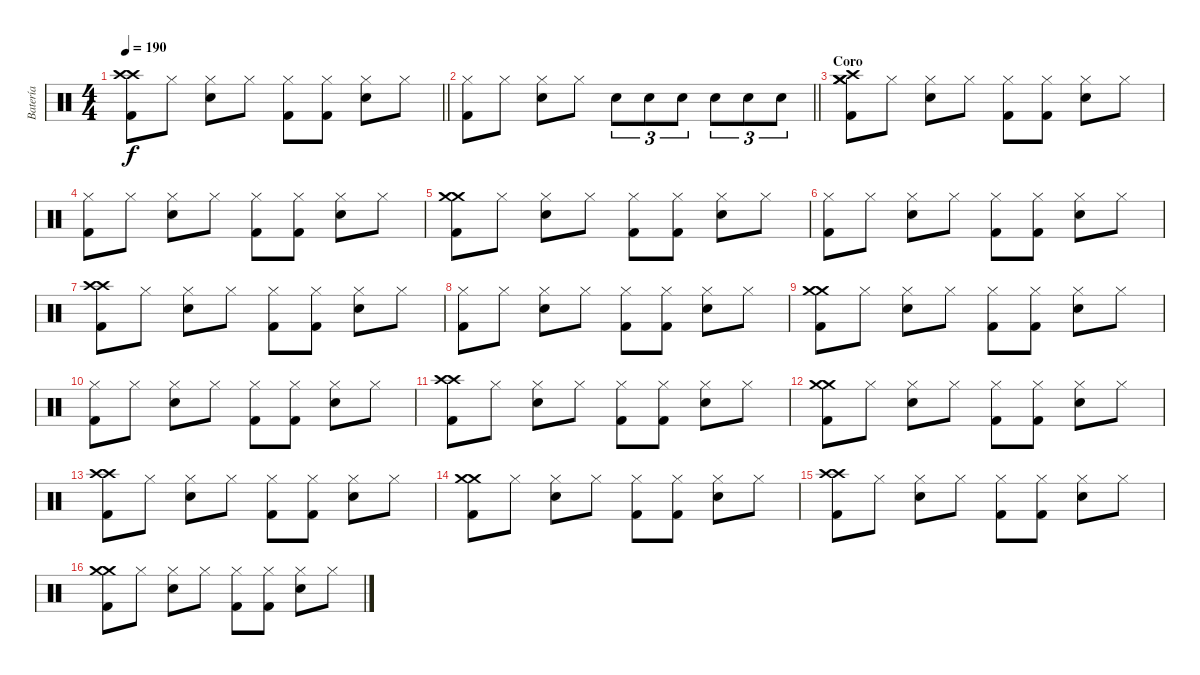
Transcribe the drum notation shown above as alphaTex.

\track ("Batería" "Batería") {instrument percussion}
\staff {score}
\articulation defaults
\ts (4 4)
\tempo 190
\clef neutral
\barLineRight lightlight
\ks c
("Crash high (hit)" "Crash high (hit)" "Kick (hit) 2").8{dy f} "Hi-Hat (closed)".8 ("Hi-Hat (closed)" "Snare (hit) 2").8 "Hi-Hat (closed)".8 ("Hi-Hat (closed)" "Kick (hit) 2").8 ("Hi-Hat (closed)" "Kick (hit) 2").8 ("Hi-Hat (closed)" "Snare (hit) 2").8 "Hi-Hat (closed)".8 |
\barLineRight lightlight
("Hi-Hat (closed)" "Kick (hit) 2").8 "Hi-Hat (closed)".8 ("Hi-Hat (closed)" "Snare (hit) 2").8 "Hi-Hat (closed)".8 "Snare (hit) 2".8{tu (3 2)} "Snare (hit) 2".8{tu (3 2)} "Snare (hit) 2".8{tu (3 2)} "Snare (hit) 2".8{tu (3 2)} "Snare (hit) 2".8{tu (3 2)} "Snare (hit) 2".8{tu (3 2)} |
\section ("" "Coro")
("Crash medium (hit)" "Crash high (hit)" "Crash medium (hit)" "Kick (hit) 2").8 "Hi-Hat (closed)".8 ("Hi-Hat (closed)" "Snare (hit) 2").8 "Hi-Hat (closed)".8 ("Hi-Hat (closed)" "Kick (hit) 2").8 ("Hi-Hat (closed)" "Kick (hit) 2").8 ("Hi-Hat (closed)" "Snare (hit) 2").8 "Hi-Hat (closed)".8 |
("Hi-Hat (closed)" "Kick (hit) 2").8 "Hi-Hat (closed)".8 ("Hi-Hat (closed)" "Snare (hit) 2").8 "Hi-Hat (closed)".8 ("Hi-Hat (closed)" "Kick (hit) 2").8 ("Hi-Hat (closed)" "Kick (hit) 2").8 ("Hi-Hat (closed)" "Snare (hit) 2").8 "Hi-Hat (closed)".8 |
("Crash medium (hit)" "Crash medium (hit)" "Kick (hit) 2").8 "Hi-Hat (closed)".8 ("Hi-Hat (closed)" "Snare (hit) 2").8 "Hi-Hat (closed)".8 ("Hi-Hat (closed)" "Kick (hit) 2").8 ("Hi-Hat (closed)" "Kick (hit) 2").8 ("Hi-Hat (closed)" "Snare (hit) 2").8 "Hi-Hat (closed)".8 |
("Hi-Hat (closed)" "Kick (hit) 2").8 "Hi-Hat (closed)".8 ("Hi-Hat (closed)" "Snare (hit) 2").8 "Hi-Hat (closed)".8 ("Hi-Hat (closed)" "Kick (hit) 2").8 ("Hi-Hat (closed)" "Kick (hit) 2").8 ("Hi-Hat (closed)" "Snare (hit) 2").8 "Hi-Hat (closed)".8 |
("Crash high (hit)" "Crash high (hit)" "Kick (hit) 2").8 "Hi-Hat (closed)".8 ("Hi-Hat (closed)" "Snare (hit) 2").8 "Hi-Hat (closed)".8 ("Hi-Hat (closed)" "Kick (hit) 2").8 ("Hi-Hat (closed)" "Kick (hit) 2").8 ("Hi-Hat (closed)" "Snare (hit) 2").8 "Hi-Hat (closed)".8 |
("Hi-Hat (closed)" "Kick (hit) 2").8 "Hi-Hat (closed)".8 ("Hi-Hat (closed)" "Snare (hit) 2").8 "Hi-Hat (closed)".8 ("Hi-Hat (closed)" "Kick (hit) 2").8 ("Hi-Hat (closed)" "Kick (hit) 2").8 ("Hi-Hat (closed)" "Snare (hit) 2").8 "Hi-Hat (closed)".8 |
("Crash medium (hit)" "Crash medium (hit)" "Kick (hit) 2").8 "Hi-Hat (closed)".8 ("Hi-Hat (closed)" "Snare (hit) 2").8 "Hi-Hat (closed)".8 ("Hi-Hat (closed)" "Kick (hit) 2").8 ("Hi-Hat (closed)" "Kick (hit) 2").8 ("Hi-Hat (closed)" "Snare (hit) 2").8 "Hi-Hat (closed)".8 |
("Hi-Hat (closed)" "Kick (hit) 2").8 "Hi-Hat (closed)".8 ("Hi-Hat (closed)" "Snare (hit) 2").8 "Hi-Hat (closed)".8 ("Hi-Hat (closed)" "Kick (hit) 2").8 ("Hi-Hat (closed)" "Kick (hit) 2").8 ("Hi-Hat (closed)" "Snare (hit) 2").8 "Hi-Hat (closed)".8 |
("Crash high (hit)" "Crash high (hit)" "Kick (hit) 2").8 "Hi-Hat (closed)".8 ("Hi-Hat (closed)" "Snare (hit) 2").8 "Hi-Hat (closed)".8 ("Hi-Hat (closed)" "Kick (hit) 2").8 ("Hi-Hat (closed)" "Kick (hit) 2").8 ("Hi-Hat (closed)" "Snare (hit) 2").8 "Hi-Hat (closed)".8 |
("Crash medium (hit)" "Crash medium (hit)" "Kick (hit) 2").8 "Hi-Hat (closed)".8 ("Hi-Hat (closed)" "Snare (hit) 2").8 "Hi-Hat (closed)".8 ("Hi-Hat (closed)" "Kick (hit) 2").8 ("Hi-Hat (closed)" "Kick (hit) 2").8 ("Hi-Hat (closed)" "Snare (hit) 2").8 "Hi-Hat (closed)".8 |
("Crash high (hit)" "Crash high (hit)" "Kick (hit) 2").8 "Hi-Hat (closed)".8 ("Hi-Hat (closed)" "Snare (hit) 2").8 "Hi-Hat (closed)".8 ("Hi-Hat (closed)" "Kick (hit) 2").8 ("Hi-Hat (closed)" "Kick (hit) 2").8 ("Hi-Hat (closed)" "Snare (hit) 2").8 "Hi-Hat (closed)".8 |
("Crash medium (hit)" "Crash medium (hit)" "Kick (hit) 2").8 "Hi-Hat (closed)".8 ("Hi-Hat (closed)" "Snare (hit) 2").8 "Hi-Hat (closed)".8 ("Hi-Hat (closed)" "Kick (hit) 2").8 ("Hi-Hat (closed)" "Kick (hit) 2").8 ("Hi-Hat (closed)" "Snare (hit) 2").8 "Hi-Hat (closed)".8 |
("Crash high (hit)" "Crash high (hit)" "Kick (hit) 2").8 "Hi-Hat (closed)".8 ("Hi-Hat (closed)" "Snare (hit) 2").8 "Hi-Hat (closed)".8 ("Hi-Hat (closed)" "Kick (hit) 2").8 ("Hi-Hat (closed)" "Kick (hit) 2").8 ("Hi-Hat (closed)" "Snare (hit) 2").8 "Hi-Hat (closed)".8 |
("Crash medium (hit)" "Crash medium (hit)" "Kick (hit) 2").8 "Hi-Hat (closed)".8 ("Hi-Hat (closed)" "Snare (hit) 2").8 "Hi-Hat (closed)".8 ("Hi-Hat (closed)" "Kick (hit) 2").8 ("Hi-Hat (closed)" "Kick (hit) 2").8 ("Hi-Hat (closed)" "Snare (hit) 2").8 "Hi-Hat (closed)".8
